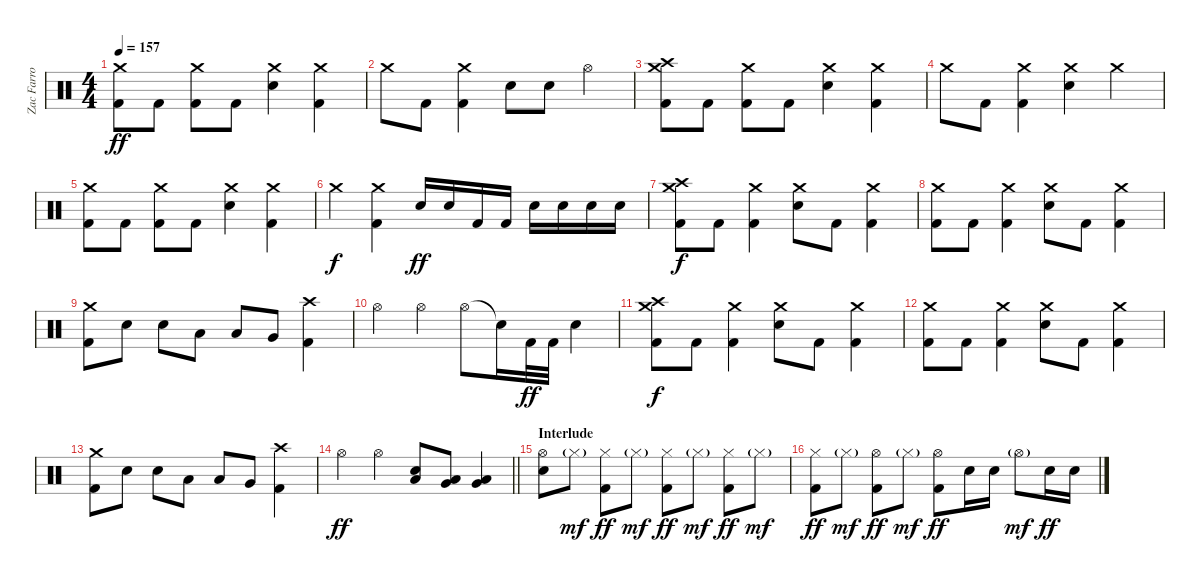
\track ("Zac Farro | Drum" "Zac Farro ") {instrument percussion}
\staff {score}
\articulation defaults
\ts (4 4)
\tempo 157
\clef neutral
\ks c
("Crash medium (hit)" "Kick (hit) 2").8{dy ff} "Kick (hit) 2".8 ("Crash medium (hit)" "Kick (hit) 2").8 "Kick (hit) 2".8 ("Crash medium (hit)" "Electric Snare (hit)").4 ("Crash medium (hit)" "Kick (hit) 2").4 |
"Crash medium (hit)".8 "Kick (hit) 2".8 ("Crash medium (hit)" "Kick (hit) 2").4 "Electric Snare (hit)".8 "Electric Snare (hit)".8 "Hi-Hat (open)".4 |
("Crash high (hit)" "Crash medium (hit)" "Kick (hit) 2").8 "Kick (hit) 2".8 ("Crash medium (hit)" "Kick (hit) 2").8 "Kick (hit) 2".8 ("Crash medium (hit)" "Electric Snare (hit)").4 ("Crash medium (hit)" "Kick (hit) 2").4 |
"Crash medium (hit)".8 "Kick (hit) 2".8 ("Crash medium (hit)" "Kick (hit) 2").4 ("Crash medium (hit)" "Electric Snare (hit)").4 "Crash medium (hit)".4 |
("Crash medium (hit)" "Kick (hit) 2").8 "Kick (hit) 2".8 ("Crash medium (hit)" "Kick (hit) 2").8 "Kick (hit) 2".8 ("Crash medium (hit)" "Electric Snare (hit)").4 ("Crash medium (hit)" "Kick (hit) 2").4 |
"Crash medium (hit)".4{dy f} ("Crash medium (hit)" "Kick (hit) 2").4 "Electric Snare (hit)".16{dy ff} "Electric Snare (hit)".16 "Kick (hit) 2".16 "Kick (hit) 2".16 "Electric Snare (hit)".16 "Electric Snare (hit)".16 "Electric Snare (hit)".16 "Electric Snare (hit)".16 |
("Crash high (hit)" "Crash medium (hit)" "Kick (hit) 2").8{dy f} "Kick (hit) 2".8 ("Crash medium (hit)" "Kick (hit) 2").4 ("Crash medium (hit)" "Electric Snare (hit)").8 "Kick (hit) 2".8 ("Crash medium (hit)" "Kick (hit) 2").4 |
("Crash medium (hit)" "Kick (hit) 2").8 "Kick (hit) 2".8 ("Crash medium (hit)" "Kick (hit) 2").4 ("Crash medium (hit)" "Electric Snare (hit)").8 "Kick (hit) 2".8 ("Crash medium (hit)" "Kick (hit) 2").4 |
("Crash medium (hit)" "Kick (hit) 2").8 "Electric Snare (hit)".8 "Electric Snare (hit)".8 "Low Tom (hit)".8 "Low Tom (hit)".8 "Very Low Tom (hit)".8 ("Crash high (hit)" "Kick (hit) 2").4 |
"Hi-Hat (open)".4 "Hi-Hat (open)".4 "Hi-Hat (open)".8 "Snare (hit)"{t}.16 "Kick (hit) 2".32{dy ff} "Kick (hit) 2".32 "Electric Snare (hit)".4 |
("Crash high (hit)" "Crash medium (hit)" "Kick (hit) 2").8{dy f} "Kick (hit) 2".8 ("Crash medium (hit)" "Kick (hit) 2").4 ("Crash medium (hit)" "Electric Snare (hit)").8 "Kick (hit) 2".8 ("Crash medium (hit)" "Kick (hit) 2").4 |
("Crash medium (hit)" "Kick (hit) 2").8 "Kick (hit) 2".8 ("Crash medium (hit)" "Kick (hit) 2").4 ("Crash medium (hit)" "Electric Snare (hit)").8 "Kick (hit) 2".8 ("Crash medium (hit)" "Kick (hit) 2").4 |
("Crash medium (hit)" "Kick (hit) 2").8 "Electric Snare (hit)".8 "Electric Snare (hit)".8 "Low Tom (hit)".8 "Low Tom (hit)".8 "Very Low Tom (hit)".8 ("Crash high (hit)" "Kick (hit) 2").4 |
\barLineRight lightlight "Hi-Hat (open)".4{dy ff} "Hi-Hat (open)".4
("Low Tom (hit)" "Electric Snare (hit)").8 ("Low Tom (hit)" "Very Low Tom (hit)").8 ("Low Tom (hit)" "Very Low Tom (hit)").4 |
\section ("" "Interlude")
("Hi-Hat (open)" "Electric Snare (hit)").8 "Hi-Hat (closed)"{g}.8{dy mf} ("Hi-Hat (closed)" "Kick (hit) 2").8{dy ff} "Hi-Hat (closed)"{g}.8{dy mf} ("Hi-Hat (closed)" "Kick (hit) 2").8{dy ff} "Hi-Hat (closed)"{g}.8{dy mf} ("Hi-Hat (closed)" "Kick (hit) 2").8{dy ff} "Hi-Hat (closed)"{g}.8{dy mf} |
("Hi-Hat (closed)" "Kick (hit) 2").8{dy ff} "Hi-Hat (closed)"{g}.8{dy mf} ("Hi-Hat (open)" "Kick (hit) 2").8{dy ff} "Hi-Hat (closed)"{g}.8{dy mf} ("Hi-Hat (open)" "Kick (hit) 2").8{dy ff} "Electric Snare (hit)".16 "Electric Snare (hit)".16 "Hi-Hat (open)"{g}.8{dy mf} "Electric Snare (hit)".16{dy ff} "Electric Snare (hit)".16
